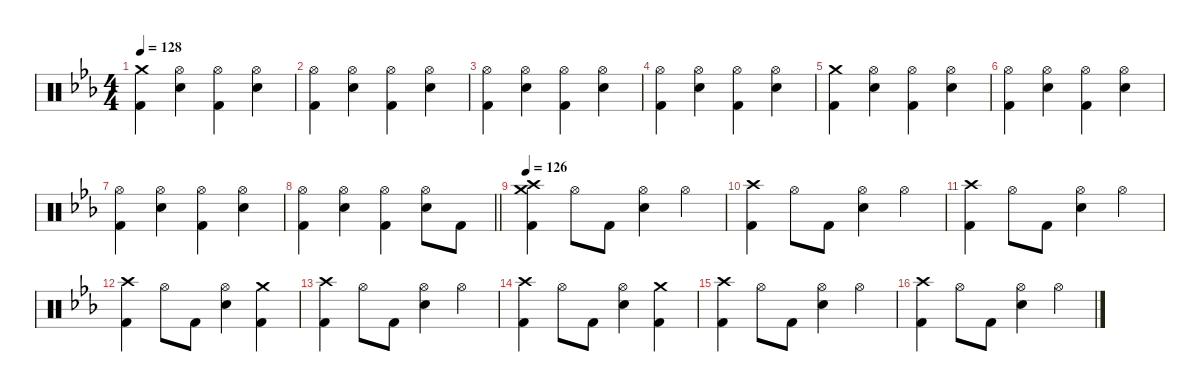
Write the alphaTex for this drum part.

\defaultSystemsLayout 4
\hideDynamics
\bracketExtendMode nobrackets
\singleTrackTrackNamePolicy hidden
\multiTrackTrackNamePolicy hidden
\firstSystemTrackNameMode fullname
\otherSystemsTrackNameOrientation horizontal
\track ("Drums" "drm.") {instrument percussion}
\staff {score}
\articulation defaults
\ts (4 4)
\tempo 128
\clef neutral
\ks cminor
("Crash medium (hit)"{acc forcenatural} "Kick (hit) 2"{acc forcenatural}).4{dy f beam Down} ("Hi-Hat (open)"{acc forcenatural} "Snare (hit) 2"{acc forcenatural}).4{dy mp beam Down} ("Hi-Hat (open)"{acc forcenatural} "Kick (hit) 2"{acc forcenatural}).4{beam Down} ("Hi-Hat (open)"{acc forcenatural} "Snare (hit) 2"{acc forcenatural}).4{beam Down} |
("Hi-Hat (open)"{acc forcenatural} "Kick (hit) 2"{acc forcenatural}).4{beam Down} ("Hi-Hat (open)"{acc forcenatural} "Snare (hit) 2"{acc forcenatural}).4{beam Down} ("Hi-Hat (open)"{acc forcenatural} "Kick (hit) 2"{acc forcenatural}).4{beam Down} ("Hi-Hat (open)"{acc forcenatural} "Snare (hit) 2"{acc forcenatural}).4{beam Down} |
("Hi-Hat (open)"{acc forcenatural} "Kick (hit) 2"{acc forcenatural}).4{beam Down} ("Hi-Hat (open)"{acc forcenatural} "Snare (hit) 2"{acc forcenatural}).4{beam Down} ("Hi-Hat (open)"{acc forcenatural} "Kick (hit) 2"{acc forcenatural}).4{beam Down} ("Hi-Hat (open)"{acc forcenatural} "Snare (hit) 2"{acc forcenatural}).4{beam Down} |
("Hi-Hat (open)"{acc forcenatural} "Kick (hit) 2"{acc forcenatural}).4{beam Down} ("Hi-Hat (open)"{acc forcenatural} "Snare (hit) 2"{acc forcenatural}).4{beam Down} ("Hi-Hat (open)"{acc forcenatural} "Kick (hit) 2"{acc forcenatural}).4{beam Down} ("Hi-Hat (open)"{acc forcenatural} "Snare (hit) 2"{acc forcenatural}).4{beam Down} |
("Crash medium (hit)"{acc forcenatural} "Kick (hit) 2"{acc forcenatural}).4{dy f beam Down} ("Hi-Hat (open)"{acc forcenatural} "Snare (hit) 2"{acc forcenatural}).4{dy mp beam Down} ("Hi-Hat (open)"{acc forcenatural} "Kick (hit) 2"{acc forcenatural}).4{beam Down} ("Hi-Hat (open)"{acc forcenatural} "Snare (hit) 2"{acc forcenatural}).4{beam Down} |
("Hi-Hat (open)"{acc forcenatural} "Kick (hit) 2"{acc forcenatural}).4{beam Down} ("Hi-Hat (open)"{acc forcenatural} "Snare (hit) 2"{acc forcenatural}).4{beam Down} ("Hi-Hat (open)"{acc forcenatural} "Kick (hit) 2"{acc forcenatural}).4{beam Down} ("Hi-Hat (open)"{acc forcenatural} "Snare (hit) 2"{acc forcenatural}).4{beam Down} |
("Hi-Hat (open)"{acc forcenatural} "Kick (hit) 2"{acc forcenatural}).4{beam Down} ("Hi-Hat (open)"{acc forcenatural} "Snare (hit) 2"{acc forcenatural}).4{beam Down} ("Hi-Hat (open)"{acc forcenatural} "Kick (hit) 2"{acc forcenatural}).4{beam Down} ("Hi-Hat (open)"{acc forcenatural} "Snare (hit) 2"{acc forcenatural}).4{beam Down} |
\barLineRight lightlight
("Hi-Hat (open)"{acc forcenatural} "Kick (hit) 2"{acc forcenatural}).4{beam Down} ("Hi-Hat (open)"{acc forcenatural} "Snare (hit) 2"{acc forcenatural}).4{beam Down} ("Hi-Hat (open)"{acc forcenatural} "Kick (hit) 2"{acc forcenatural}).4{beam Down} ("Hi-Hat (open)"{acc forcenatural} "Snare (hit) 2"{acc forcenatural}).8{beam Down} "Kick (hit) 2"{acc forcenatural}.8{dy f beam Down} |
\tempo 126
("Crash medium (hit)"{acc forcenatural} "Crash high (hit)"{acc forcenatural} "Kick (hit) 2"{acc forcenatural}).4{beam Down} "Hi-Hat (open)"{acc forcenatural}.8{dy mp beam Down} "Kick (hit) 2"{acc forcenatural}.8{dy f beam Down} ("Hi-Hat (open)"{acc forcenatural} "Snare (hit) 2"{acc forcenatural}).4{dy mp beam Down} "Hi-Hat (open)"{acc forcenatural}.4{beam Down} |
("Crash high (hit)"{acc forcenatural} "Kick (hit) 2"{acc forcenatural}).4{beam Down} "Hi-Hat (open)"{acc forcenatural}.8{beam Down} "Kick (hit) 2"{acc forcenatural}.8{dy f beam Down} ("Hi-Hat (open)"{acc forcenatural} "Snare (hit) 2"{acc forcenatural}).4{dy mp beam Down} "Hi-Hat (open)"{acc forcenatural}.4{beam Down} |
("Crash high (hit)"{acc forcenatural} "Kick (hit) 2"{acc forcenatural}).4{beam Down} "Hi-Hat (open)"{acc forcenatural}.8{beam Down} "Kick (hit) 2"{acc forcenatural}.8{dy f beam Down} ("Hi-Hat (open)"{acc forcenatural} "Snare (hit) 2"{acc forcenatural}).4{dy mp beam Down} "Hi-Hat (open)"{acc forcenatural}.4{beam Down} |
("Crash high (hit)"{acc forcenatural} "Kick (hit) 2"{acc forcenatural}).4{beam Down} "Hi-Hat (open)"{acc forcenatural}.8{beam Down} "Kick (hit) 2"{acc forcenatural}.8{dy f beam Down} ("Hi-Hat (open)"{acc forcenatural} "Snare (hit) 2"{acc forcenatural}).4{dy mp beam Down} ("Crash medium (hit)"{acc forcenatural} "Kick (hit) 2"{acc forcenatural}).4{beam Down} |
("Crash high (hit)"{acc forcenatural} "Kick (hit) 2"{acc forcenatural}).4{beam Down} "Hi-Hat (open)"{acc forcenatural}.8{beam Down} "Kick (hit) 2"{acc forcenatural}.8{dy f beam Down} ("Hi-Hat (open)"{acc forcenatural} "Snare (hit) 2"{acc forcenatural}).4{dy mp beam Down} "Hi-Hat (open)"{acc forcenatural}.4{beam Down} |
("Crash high (hit)"{acc forcenatural} "Kick (hit) 2"{acc forcenatural}).4{beam Down} "Hi-Hat (open)"{acc forcenatural}.8{beam Down} "Kick (hit) 2"{acc forcenatural}.8{dy f beam Down} ("Hi-Hat (open)"{acc forcenatural} "Snare (hit) 2"{acc forcenatural}).4{dy mp beam Down} ("Crash medium (hit)"{acc forcenatural} "Kick (hit) 2"{acc forcenatural}).4{beam Down} |
("Crash high (hit)"{acc forcenatural} "Kick (hit) 2"{acc forcenatural}).4{beam Down} "Hi-Hat (open)"{acc forcenatural}.8{beam Down} "Kick (hit) 2"{acc forcenatural}.8{dy f beam Down} ("Hi-Hat (open)"{acc forcenatural} "Snare (hit) 2"{acc forcenatural}).4{dy mp beam Down} "Hi-Hat (open)"{acc forcenatural}.4{beam Down} |
("Crash high (hit)"{acc forcenatural} "Kick (hit) 2"{acc forcenatural}).4{beam Down} "Hi-Hat (open)"{acc forcenatural}.8{beam Down} "Kick (hit) 2"{acc forcenatural}.8{dy f beam Down} ("Hi-Hat (open)"{acc forcenatural} "Snare (hit) 2"{acc forcenatural}).4{dy mp beam Down} "Hi-Hat (open)"{acc forcenatural}.4{beam Down}
